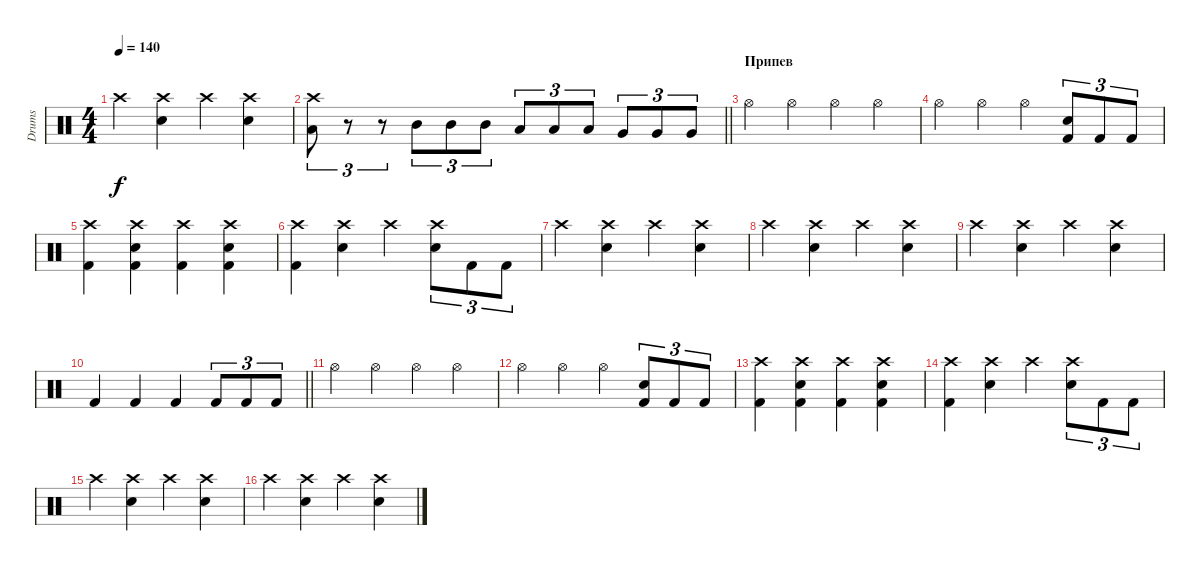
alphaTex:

\track ("Drums" "Drums") {instrument percussion}
\staff {score}
\articulation defaults
\ts (4 4)
\tempo 140
\clef neutral
\ks c "Crash high (hit)".4{dy f}
("Electric Snare (hit)" "Crash high (hit)").4 "Crash high (hit)".4 ("Electric Snare (hit)" "Crash high (hit)").4 |
\barLineRight lightlight
("Crash high (hit)" "Low Tom (hit)").8{tu (3 2)} r.8{tu (3 2)} r.8{tu (3 2)} "Mid Tom (hit)".8{tu (3 2)} "Mid Tom (hit)".8{tu (3 2)} "Mid Tom (hit)".8{tu (3 2)} "Low Tom (hit)".8{tu (3 2)} "Low Tom (hit)".8{tu (3 2)} "Low Tom (hit)".8{tu (3 2)} "Very Low Tom (hit)".8{tu (3 2)} "Very Low Tom (hit)".8{tu (3 2)} "Very Low Tom (hit)".8{tu (3 2)} |
\section ("" "Припев")
"Hi-Hat (open)".4 "Hi-Hat (open)".4 "Hi-Hat (open)".4 "Hi-Hat (open)".4 |
"Hi-Hat (open)".4 "Hi-Hat (open)".4 "Hi-Hat (open)".4 ("Electric Snare (hit)" "Kick (hit) 2").8{tu (3 2)} "Kick (hit) 2".8{tu (3 2)} "Kick (hit) 2".8{tu (3 2)} |
("Crash high (hit)" "Kick (hit) 2").4 ("Electric Snare (hit)" "Crash high (hit)" "Kick (hit) 2").4 ("Crash high (hit)" "Kick (hit) 2").4 ("Electric Snare (hit)" "Crash high (hit)" "Kick (hit) 2").4 |
("Crash high (hit)" "Kick (hit) 2").4 ("Crash high (hit)" "Electric Snare (hit)").4 "Crash high (hit)".4 ("Crash high (hit)" "Electric Snare (hit)").8{tu (3 2)} "Kick (hit) 2".8{tu (3 2)} "Kick (hit) 2".8{tu (3 2)} |
"Crash high (hit)".4 ("Crash high (hit)" "Electric Snare (hit)").4 "Crash high (hit)".4 ("Crash high (hit)" "Electric Snare (hit)").4 |
"Crash high (hit)".4 ("Electric Snare (hit)" "Crash high (hit)").4 "Crash high (hit)".4 ("Electric Snare (hit)" "Crash high (hit)").4 |
"Crash high (hit)".4 ("Electric Snare (hit)" "Crash high (hit)").4 "Crash high (hit)".4 ("Electric Snare (hit)" "Crash high (hit)").4 |
\barLineRight lightlight "Kick (hit) 2".4 "Kick (hit) 2".4 "Kick (hit) 2".4 "Kick (hit) 2".8{tu (3 2)} "Kick (hit) 2".8{tu (3 2)} "Kick (hit) 2".8{tu (3 2)}
|
"Hi-Hat (open)".4 "Hi-Hat (open)".4 "Hi-Hat (open)".4 "Hi-Hat (open)".4 |
"Hi-Hat (open)".4 "Hi-Hat (open)".4 "Hi-Hat (open)".4 ("Electric Snare (hit)" "Kick (hit) 2").8{tu (3 2)} "Kick (hit) 2".8{tu (3 2)} "Kick (hit) 2".8{tu (3 2)} |
("Crash high (hit)" "Kick (hit) 2").4 ("Electric Snare (hit)" "Crash high (hit)" "Kick (hit) 2").4 ("Crash high (hit)" "Kick (hit) 2").4 ("Electric Snare (hit)" "Crash high (hit)" "Kick (hit) 2").4 |
("Crash high (hit)" "Kick (hit) 2").4 ("Crash high (hit)" "Electric Snare (hit)").4 "Crash high (hit)".4 ("Crash high (hit)" "Electric Snare (hit)").8{tu (3 2)} "Kick (hit) 2".8{tu (3 2)} "Kick (hit) 2".8{tu (3 2)} |
"Crash high (hit)".4 ("Crash high (hit)" "Electric Snare (hit)").4 "Crash high (hit)".4 ("Crash high (hit)" "Electric Snare (hit)").4 |
"Crash high (hit)".4 ("Electric Snare (hit)" "Crash high (hit)").4 "Crash high (hit)".4 ("Electric Snare (hit)" "Crash high (hit)").4
